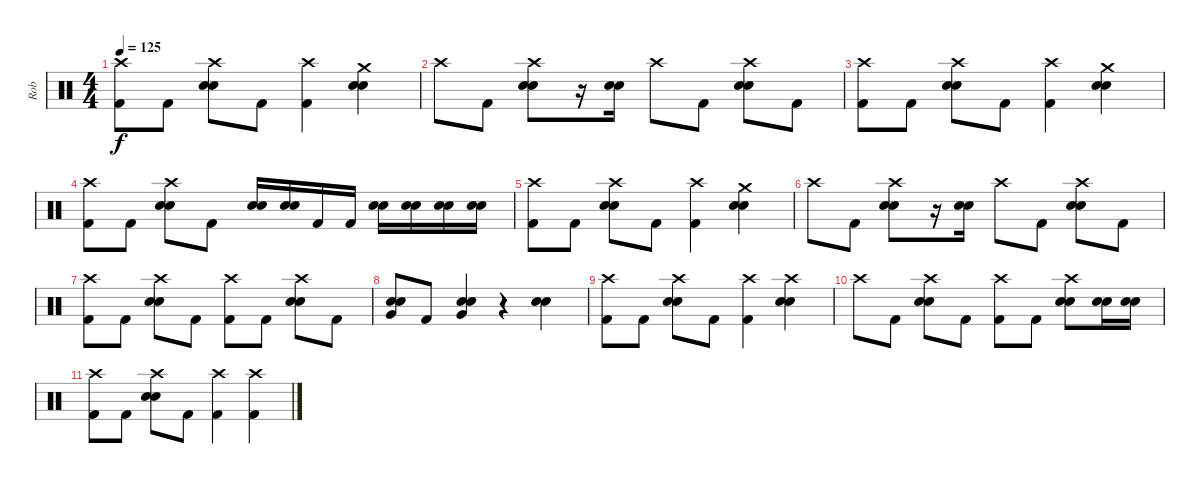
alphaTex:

\track ("Rob" "Rob") {instrument percussion}
\staff {score}
\articulation defaults
\ts (4 4)
\tempo 125
\clef neutral
\ks c
("Crash high (hit)" "Kick (hit) 2").8{dy f} "Kick (hit) 2".8 ("Crash high (hit)" "Electric Snare (hit)" "Snare (hit) 2").8 "Kick (hit) 2".8 ("Crash high (hit)" "Kick (hit) 2").4 ("Crash medium (hit)" "Electric Snare (hit)" "Snare (hit) 2").4 |
"Crash high (hit)".8 "Kick (hit) 2".8 ("Crash high (hit)" "Electric Snare (hit)" "Snare (hit) 2").8 r.16 ("Electric Snare (hit)" "Snare (hit) 2").16 "Crash high (hit)".8 "Kick (hit) 2".8 ("Crash high (hit)" "Electric Snare (hit)" "Snare (hit) 2").8 "Kick (hit) 2".8 |
("Crash high (hit)" "Kick (hit) 2").8 "Kick (hit) 2".8 ("Crash high (hit)" "Electric Snare (hit)" "Snare (hit) 2").8 "Kick (hit) 2".8 ("Crash high (hit)" "Kick (hit) 2").4 ("Crash medium (hit)" "Electric Snare (hit)" "Snare (hit) 2").4 |
("Crash high (hit)" "Kick (hit) 2").8 "Kick (hit) 2".8 ("Crash high (hit)" "Electric Snare (hit)" "Snare (hit) 2").8 "Kick (hit) 2".8 ("Electric Snare (hit)" "Snare (hit) 2").16 ("Electric Snare (hit)" "Snare (hit) 2").16 "Kick (hit) 2".16 "Kick (hit) 2".16 ("Electric Snare (hit)" "Snare (hit) 2").16 ("Electric Snare (hit)" "Snare (hit) 2").16 ("Electric Snare (hit)" "Snare (hit) 2").16 ("Electric Snare (hit)" "Snare (hit) 2").16 |
("Crash high (hit)" "Kick (hit) 2").8 "Kick (hit) 2".8 ("Crash high (hit)" "Electric Snare (hit)" "Snare (hit) 2").8 "Kick (hit) 2".8 ("Crash high (hit)" "Kick (hit) 2").4 ("Crash medium (hit)" "Electric Snare (hit)" "Snare (hit) 2").4 |
"Crash high (hit)".8 "Kick (hit) 2".8 ("Crash high (hit)" "Electric Snare (hit)" "Snare (hit) 2").8 r.16 ("Electric Snare (hit)" "Snare (hit) 2").16 "Crash high (hit)".8 "Kick (hit) 2".8 ("Crash high (hit)" "Electric Snare (hit)" "Snare (hit) 2").8 "Kick (hit) 2".8 |
("Crash high (hit)" "Kick (hit) 2").8 "Kick (hit) 2".8 ("Crash high (hit)" "Electric Snare (hit)" "Snare (hit) 2").8 "Kick (hit) 2".8 ("Crash high (hit)" "Kick (hit) 2").8 "Kick (hit) 2".8 ("Crash high (hit)" "Electric Snare (hit)" "Snare (hit) 2").8 "Kick (hit) 2".8 |
("Very Low Tom (hit)" "Electric Snare (hit)" "Snare (hit) 2").8 "Kick (hit) 2".8 ("Very Low Tom (hit)" "Electric Snare (hit)" "Snare (hit) 2").4 r.4 ("Electric Snare (hit)" "Snare (hit) 2").4 |
("Crash high (hit)" "Kick (hit) 2").8 "Kick (hit) 2".8 ("Crash high (hit)" "Electric Snare (hit)" "Snare (hit) 2").8 "Kick (hit) 2".8 ("Crash high (hit)" "Kick (hit) 2").4 ("Crash high (hit)" "Electric Snare (hit)" "Snare (hit) 2").4 |
"Crash high (hit)".8 "Kick (hit) 2".8 ("Crash high (hit)" "Electric Snare (hit)" "Snare (hit) 2").8 "Kick (hit) 2".8 ("Crash high (hit)" "Kick (hit) 2").8 "Kick (hit) 2".8 ("Crash high (hit)" "Electric Snare (hit)" "Snare (hit) 2").8 ("Electric Snare (hit)" "Snare (hit) 2").16 ("Electric Snare (hit)" "Snare (hit) 2").16 |
("Crash high (hit)" "Kick (hit) 2").8 "Kick (hit) 2".8 ("Crash high (hit)" "Electric Snare (hit)" "Snare (hit) 2").8 "Kick (hit) 2".8 ("Crash high (hit)" "Kick (hit) 2").4 ("Crash high (hit)" "Kick (hit) 2").4
